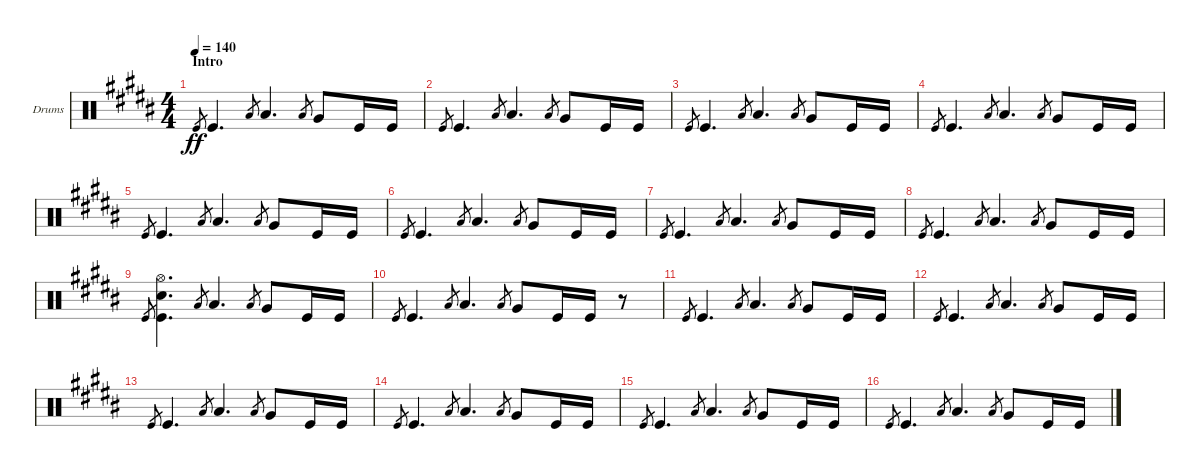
\defaultSystemsLayout 4
\bracketExtendMode groupsimilarinstruments
\firstSystemTrackNameOrientation horizontal
\otherSystemsTrackNameOrientation horizontal
\track ("Drumkit" "Drums") {instrument percussion}
\staff {score}
\articulation defaults
\ts (4 4)
\section ("" "Intro")
\tempo 140
\clef neutral
\scale
0.549407
\ks b "Kick (hit)".8{gr dy ff} "Kick (hit)".4{d} "Low Tom (hit)".8{gr} "Low Tom (hit)".4{d} "Low Tom (hit)".8{gr} "Very Low Tom (hit)".8 "Kick (hit)".16 "Kick (hit)".16
|
\scale
0.225296 "Kick (hit)".8{gr} "Kick (hit)".4{d} "Low Tom (hit)".8{gr} "Low Tom (hit)".4{d} "Low Tom (hit)".8{gr} "Very Low Tom (hit)".8 "Kick (hit)".16 "Kick (hit)".16 |
\scale
0.225296 "Kick (hit)".8{gr} "Kick (hit)".4{d} "Low Tom (hit)".8{gr} "Low Tom (hit)".4{d} "Low Tom (hit)".8{gr} "Very Low Tom (hit)".8 "Kick (hit)".16 "Kick (hit)".16 |
\scale
0.333333 "Kick (hit)".8{gr} "Kick (hit)".4{d} "Low Tom (hit)".8{gr} "Low Tom (hit)".4{d} "Low Tom (hit)".8{gr} "Very Low Tom (hit)".8 "Kick (hit)".16 "Kick (hit)".16 |
\scale
0.333333 "Kick (hit)".8{gr} "Kick (hit)".4{d} "Low Tom (hit)".8{gr} "Low Tom (hit)".4{d} "Low Tom (hit)".8{gr} "Very Low Tom (hit)".8 "Kick (hit)".16 "Kick (hit)".16 |
\scale
0.333333 "Kick (hit)".8{gr} "Kick (hit)".4{d} "Low Tom (hit)".8{gr} "Low Tom (hit)".4{d} "Low Tom (hit)".8{gr} "Very Low Tom (hit)".8 "Kick (hit)".16 "Kick (hit)".16 |
\scale
0.333333 "Kick (hit)".8{gr} "Kick (hit)".4{d} "Low Tom (hit)".8{gr} "Low Tom (hit)".4{d} "Low Tom (hit)".8{gr} "Very Low Tom (hit)".8 "Kick (hit)".16 "Kick (hit)".16 |
\scale
0.333333 "Kick (hit)".8{gr} "Kick (hit)".4{d} "Low Tom (hit)".8{gr} "Low Tom (hit)".4{d} "Low Tom (hit)".8{gr} "Very Low Tom (hit)".8 "Kick (hit)".16 "Kick (hit)".16 |
\scale
0.333333 "Kick (hit)".8{gr} ("Kick (hit)" "Snare (hit) 2" "Hi-Hat (open)").4{d} "Low Tom (hit)".8{gr} "Low Tom (hit)".4{d} "Low Tom (hit)".8{gr} "Very Low Tom (hit)".8 "Kick (hit)".16 "Kick (hit)".16 |
\scale
0.333333 "Kick (hit)".8{gr} "Kick (hit)".4{d} "Low Tom (hit)".8{gr} "Low Tom (hit)".4{d} "Low Tom (hit)".8{gr} "Very Low Tom (hit)".8 "Kick (hit)".16 "Kick (hit)".16 r.8 |
\scale
0.333333 "Kick (hit)".8{gr} "Kick (hit)".4{d} "Low Tom (hit)".8{gr} "Low Tom (hit)".4{d} "Low Tom (hit)".8{gr} "Very Low Tom (hit)".8 "Kick (hit)".16 "Kick (hit)".16 |
\scale
0.333333 "Kick (hit)".8{gr} "Kick (hit)".4{d} "Low Tom (hit)".8{gr} "Low Tom (hit)".4{d} "Low Tom (hit)".8{gr} "Very Low Tom (hit)".8 "Kick (hit)".16 "Kick (hit)".16 |
\scale
0.333333 "Kick (hit)".8{gr} "Kick (hit)".4{d} "Low Tom (hit)".8{gr} "Low Tom (hit)".4{d} "Low Tom (hit)".8{gr} "Very Low Tom (hit)".8 "Kick (hit)".16 "Kick (hit)".16 |
\scale
0.333333 "Kick (hit)".8{gr} "Kick (hit)".4{d} "Low Tom (hit)".8{gr} "Low Tom (hit)".4{d} "Low Tom (hit)".8{gr} "Very Low Tom (hit)".8 "Kick (hit)".16 "Kick (hit)".16 |
\scale
0.333333 "Kick (hit)".8{gr} "Kick (hit)".4{d} "Low Tom (hit)".8{gr} "Low Tom (hit)".4{d} "Low Tom (hit)".8{gr} "Very Low Tom (hit)".8 "Kick (hit)".16 "Kick (hit)".16 |
"Kick (hit)".8{gr} "Kick (hit)".4{d} "Low Tom (hit)".8{gr} "Low Tom (hit)".4{d} "Low Tom (hit)".8{gr} "Very Low Tom (hit)".8 "Kick (hit)".16 "Kick (hit)".16
